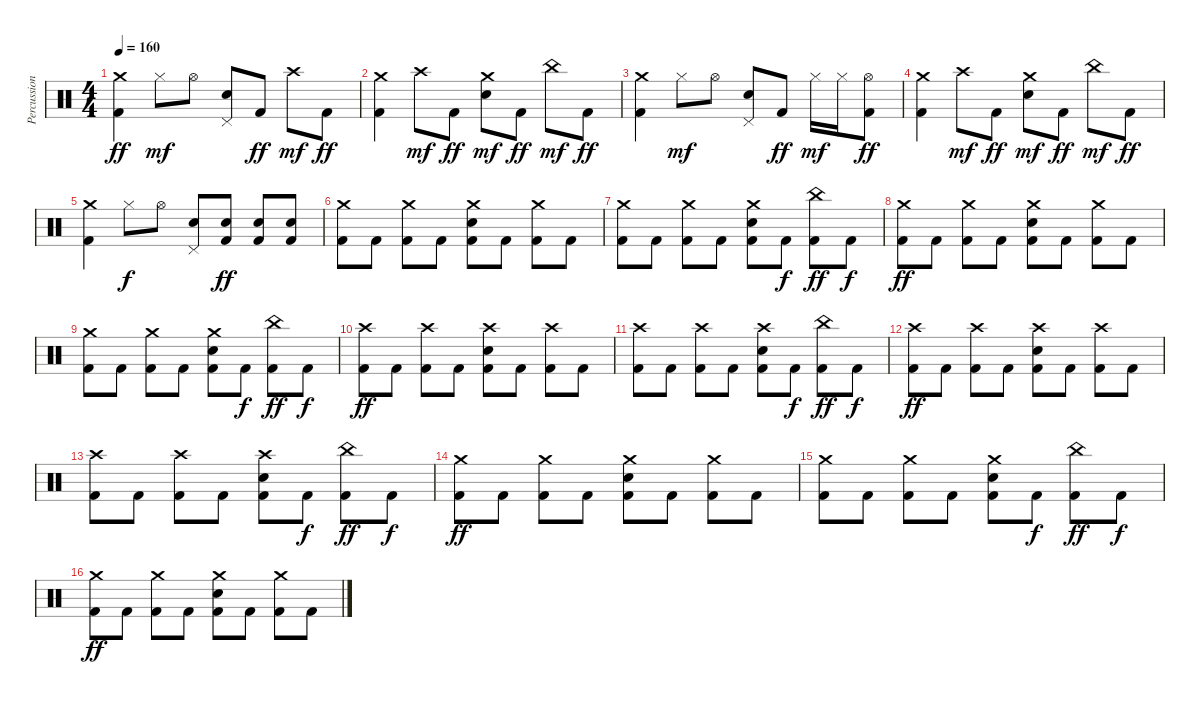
\track ("Percussion" "Percussion") {instrument percussion}
\staff {score}
\articulation defaults
\ts (4 4)
\tempo 160
\clef neutral
\ks c
("Crash medium (hit)" "Kick (hit) 2").4{dy ff} "Hi-Hat (closed)".8{dy mf} "Hi-Hat (open)".8 ("Pedal Hi-Hat (hit)" "Electric Snare (hit)").8 "Kick (hit) 2".8{dy ff} "Crash high (hit)".8{dy mf} "Kick (hit) 2".8{dy ff} |
("Crash medium (hit)" "Kick (hit) 2").4 "Crash high (hit)".8{dy mf} "Kick (hit) 2".8{dy ff} ("Crash medium (hit)" "Electric Snare (hit)").8{dy mf} "Kick (hit) 2".8{dy ff} "China (hit)".8{dy mf} "Kick (hit) 2".8{dy ff} |
("Crash medium (hit)" "Kick (hit) 2").4 "Hi-Hat (closed)".8{dy mf} "Hi-Hat (open)".8 ("Pedal Hi-Hat (hit)" "Electric Snare (hit)").8 "Kick (hit) 2".8{dy ff} "Hi-Hat (closed)".16{dy mf} "Hi-Hat (closed)".16 ("Hi-Hat (open)" "Kick (hit) 2").8{dy ff} |
("Crash medium (hit)" "Kick (hit) 2").4 "Crash high (hit)".8{dy mf} "Kick (hit) 2".8{dy ff} ("Crash medium (hit)" "Electric Snare (hit)").8{dy mf} "Kick (hit) 2".8{dy ff} "China (hit)".8{dy mf} "Kick (hit) 2".8{dy ff} |
("Crash medium (hit)" "Kick (hit) 2").4 "Hi-Hat (closed)".8{dy f} "Hi-Hat (open)".8 ("Pedal Hi-Hat (hit)" "Electric Snare (hit)").8 ("Electric Snare (hit)" "Kick (hit) 2").8{dy ff} ("Electric Snare (hit)" "Kick (hit) 2").8 ("Electric Snare (hit)" "Kick (hit) 2").8 |
("Crash medium (hit)" "Kick (hit) 2").8 "Kick (hit) 2".8 ("Crash medium (hit)" "Kick (hit) 2").8 "Kick (hit) 2".8 ("Crash medium (hit)" "Electric Snare (hit)" "Kick (hit) 2").8 "Kick (hit) 2".8 ("Crash medium (hit)" "Kick (hit) 2").8 "Kick (hit) 2".8 |
("Crash medium (hit)" "Kick (hit) 2").8 "Kick (hit) 2".8 ("Crash medium (hit)" "Kick (hit) 2").8 "Kick (hit) 2".8 ("Crash medium (hit)" "Electric Snare (hit)" "Kick (hit) 2").8 "Kick (hit) 2".8{dy f} ("China (hit)" "Kick (hit) 2").8{dy ff} "Kick (hit) 2".8{dy f} |
("Crash medium (hit)" "Kick (hit) 2").8{dy ff} "Kick (hit) 2".8 ("Crash medium (hit)" "Kick (hit) 2").8 "Kick (hit) 2".8 ("Crash medium (hit)" "Electric Snare (hit)" "Kick (hit) 2").8 "Kick (hit) 2".8 ("Crash medium (hit)" "Kick (hit) 2").8 "Kick (hit) 2".8 |
("Crash medium (hit)" "Kick (hit) 2").8 "Kick (hit) 2".8 ("Crash medium (hit)" "Kick (hit) 2").8 "Kick (hit) 2".8 ("Crash medium (hit)" "Electric Snare (hit)" "Kick (hit) 2").8 "Kick (hit) 2".8{dy f} ("China (hit)" "Kick (hit) 2").8{dy ff} "Kick (hit) 2".8{dy f} |
("Crash high (hit)" "Kick (hit) 2").8{dy ff} "Kick (hit) 2".8 ("Crash high (hit)" "Kick (hit) 2").8 "Kick (hit) 2".8 ("Crash high (hit)" "Electric Snare (hit)" "Kick (hit) 2").8 "Kick (hit) 2".8 ("Crash high (hit)" "Kick (hit) 2").8 "Kick (hit) 2".8 |
("Crash high (hit)" "Kick (hit) 2").8 "Kick (hit) 2".8 ("Crash high (hit)" "Kick (hit) 2").8 "Kick (hit) 2".8 ("Crash high (hit)" "Electric Snare (hit)" "Kick (hit) 2").8 "Kick (hit) 2".8{dy f} ("China (hit)" "Kick (hit) 2").8{dy ff} "Kick (hit) 2".8{dy f} |
("Crash high (hit)" "Kick (hit) 2").8{dy ff} "Kick (hit) 2".8 ("Crash high (hit)" "Kick (hit) 2").8 "Kick (hit) 2".8 ("Crash high (hit)" "Electric Snare (hit)" "Kick (hit) 2").8 "Kick (hit) 2".8 ("Crash high (hit)" "Kick (hit) 2").8 "Kick (hit) 2".8 |
("Crash high (hit)" "Kick (hit) 2").8 "Kick (hit) 2".8 ("Crash high (hit)" "Kick (hit) 2").8 "Kick (hit) 2".8 ("Crash high (hit)" "Electric Snare (hit)" "Kick (hit) 2").8 "Kick (hit) 2".8{dy f} ("China (hit)" "Kick (hit) 2").8{dy ff} "Kick (hit) 2".8{dy f} |
("Crash medium (hit)" "Kick (hit) 2").8{dy ff} "Kick (hit) 2".8 ("Crash medium (hit)" "Kick (hit) 2").8 "Kick (hit) 2".8 ("Crash medium (hit)" "Electric Snare (hit)" "Kick (hit) 2").8 "Kick (hit) 2".8 ("Crash medium (hit)" "Kick (hit) 2").8 "Kick (hit) 2".8 |
("Crash medium (hit)" "Kick (hit) 2").8 "Kick (hit) 2".8 ("Crash medium (hit)" "Kick (hit) 2").8 "Kick (hit) 2".8 ("Crash medium (hit)" "Electric Snare (hit)" "Kick (hit) 2").8 "Kick (hit) 2".8{dy f} ("China (hit)" "Kick (hit) 2").8{dy ff} "Kick (hit) 2".8{dy f} |
("Crash medium (hit)" "Kick (hit) 2").8{dy ff} "Kick (hit) 2".8 ("Crash medium (hit)" "Kick (hit) 2").8 "Kick (hit) 2".8 ("Crash medium (hit)" "Electric Snare (hit)" "Kick (hit) 2").8 "Kick (hit) 2".8 ("Crash medium (hit)" "Kick (hit) 2").8 "Kick (hit) 2".8
